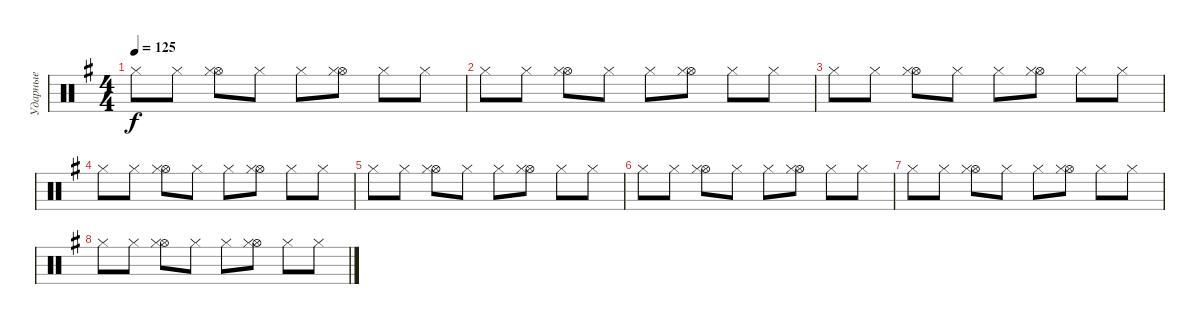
\track ("Ударные" "Ударные") {instrument percussion}
\staff {score}
\articulation defaults
\ts (4 4)
\tempo 125
\clef neutral
\ks g "Hi-Hat (closed)".8{dy f} "Hi-Hat (closed)".8
("Hi-Hat (open)" "Hi-Hat (closed)").8 "Hi-Hat (closed)".8 "Hi-Hat (closed)".8 ("Hi-Hat (open)" "Hi-Hat (closed)").8 "Hi-Hat (closed)".8 "Hi-Hat (closed)".8 |
"Hi-Hat (closed)".8 "Hi-Hat (closed)".8 ("Hi-Hat (open)" "Hi-Hat (closed)").8 "Hi-Hat (closed)".8 "Hi-Hat (closed)".8 ("Hi-Hat (open)" "Hi-Hat (closed)").8 "Hi-Hat (closed)".8 "Hi-Hat (closed)".8 |
"Hi-Hat (closed)".8 "Hi-Hat (closed)".8 ("Hi-Hat (open)" "Hi-Hat (closed)").8 "Hi-Hat (closed)".8 "Hi-Hat (closed)".8 ("Hi-Hat (open)" "Hi-Hat (closed)").8 "Hi-Hat (closed)".8 "Hi-Hat (closed)".8 |
"Hi-Hat (closed)".8 "Hi-Hat (closed)".8 ("Hi-Hat (open)" "Hi-Hat (closed)").8 "Hi-Hat (closed)".8 "Hi-Hat (closed)".8 ("Hi-Hat (open)" "Hi-Hat (closed)").8 "Hi-Hat (closed)".8 "Hi-Hat (closed)".8 |
"Hi-Hat (closed)".8 "Hi-Hat (closed)".8 ("Hi-Hat (open)" "Hi-Hat (closed)").8 "Hi-Hat (closed)".8 "Hi-Hat (closed)".8 ("Hi-Hat (open)" "Hi-Hat (closed)").8 "Hi-Hat (closed)".8 "Hi-Hat (closed)".8 |
"Hi-Hat (closed)".8 "Hi-Hat (closed)".8 ("Hi-Hat (open)" "Hi-Hat (closed)").8 "Hi-Hat (closed)".8 "Hi-Hat (closed)".8 ("Hi-Hat (open)" "Hi-Hat (closed)").8 "Hi-Hat (closed)".8 "Hi-Hat (closed)".8 |
"Hi-Hat (closed)".8 "Hi-Hat (closed)".8 ("Hi-Hat (open)" "Hi-Hat (closed)").8 "Hi-Hat (closed)".8 "Hi-Hat (closed)".8 ("Hi-Hat (open)" "Hi-Hat (closed)").8 "Hi-Hat (closed)".8 "Hi-Hat (closed)".8 |
"Hi-Hat (closed)".8 "Hi-Hat (closed)".8 ("Hi-Hat (open)" "Hi-Hat (closed)").8 "Hi-Hat (closed)".8 "Hi-Hat (closed)".8 ("Hi-Hat (open)" "Hi-Hat (closed)").8 "Hi-Hat (closed)".8 "Hi-Hat (closed)".8
